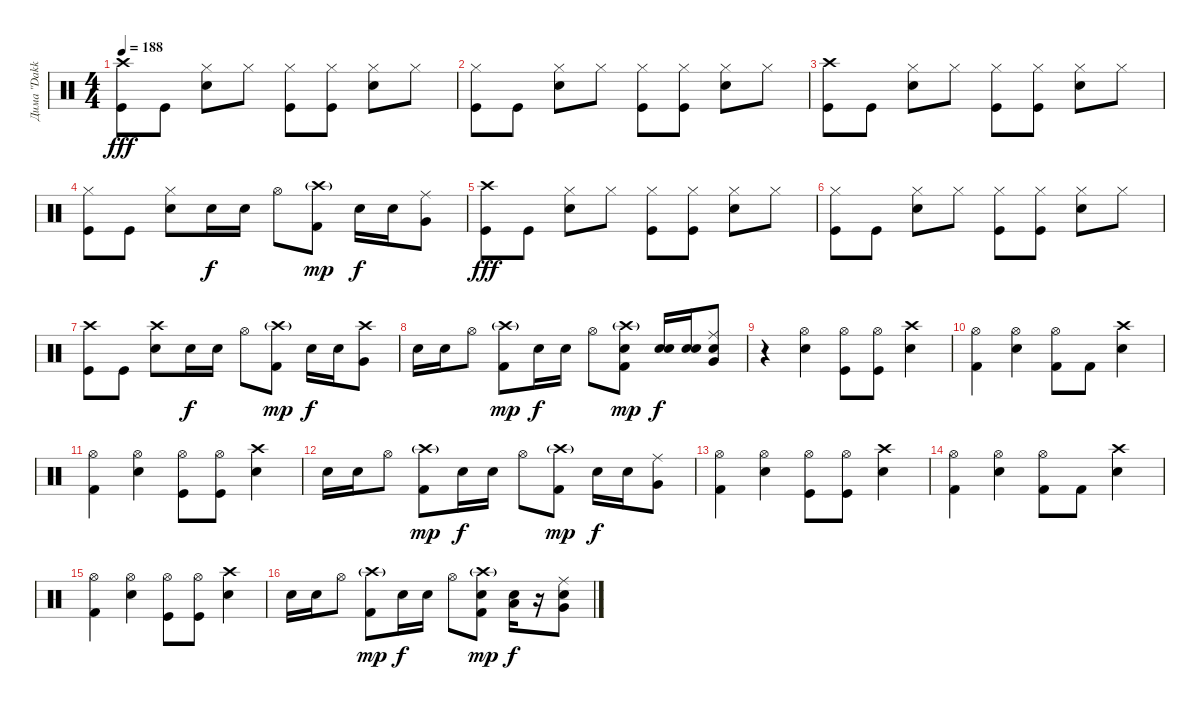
\track ("Дима \"Dakkar\" Кеменов" "Дима \"Dakk") {instrument percussion}
\staff
\articulation defaults
\ts (4 4)
\tempo 188
\clef neutral
\ks c
("Crash high (hit)" "Kick (hit)").8{dy fff} "Kick (hit)".8 ("Hi-Hat (closed)" "Snare (hit) 2").8 "Hi-Hat (closed)".8 ("Hi-Hat (closed)" "Kick (hit)").8 ("Hi-Hat (closed)" "Kick (hit)").8 ("Hi-Hat (closed)" "Snare (hit) 2").8 "Hi-Hat (closed)".8 |
("Hi-Hat (closed)" "Kick (hit)").8 "Kick (hit)".8 ("Hi-Hat (closed)" "Snare (hit) 2").8 "Hi-Hat (closed)".8 ("Hi-Hat (closed)" "Kick (hit)").8 ("Hi-Hat (closed)" "Kick (hit)").8 ("Hi-Hat (closed)" "Snare (hit) 2").8 "Hi-Hat (closed)".8 |
("Crash high (hit)" "Kick (hit)").8 "Kick (hit)".8 ("Hi-Hat (closed)" "Snare (hit) 2").8 "Hi-Hat (closed)".8 ("Hi-Hat (closed)" "Kick (hit)").8 ("Hi-Hat (closed)" "Kick (hit)").8 ("Hi-Hat (closed)" "Snare (hit) 2").8 "Hi-Hat (closed)".8 |
("Hi-Hat (closed)" "Kick (hit)").8 "Kick (hit)".8 ("Hi-Hat (closed)" "Snare (hit) 2").8 "Electric Snare (hit)".16{dy f} "Electric Snare (hit)".16 "Hi-Hat (open)".8 ("Crash high (hit)"{g} "Kick (hit) 2").8{dy mp} "Electric Snare (hit)".16{dy f} "Electric Snare (hit)".16 ("Ride (middle)" "Very Low Tom (hit)").8 |
("Crash high (hit)" "Kick (hit)").8{dy fff} "Kick (hit)".8 ("Hi-Hat (closed)" "Snare (hit) 2").8 "Hi-Hat (closed)".8 ("Hi-Hat (closed)" "Kick (hit)").8 ("Hi-Hat (closed)" "Kick (hit)").8 ("Hi-Hat (closed)" "Snare (hit) 2").8 "Hi-Hat (closed)".8 |
("Hi-Hat (closed)" "Kick (hit)").8 "Kick (hit)".8 ("Hi-Hat (closed)" "Snare (hit) 2").8 "Hi-Hat (closed)".8 ("Hi-Hat (closed)" "Kick (hit)").8 ("Hi-Hat (closed)" "Kick (hit)").8 ("Hi-Hat (closed)" "Snare (hit) 2").8 "Hi-Hat (closed)".8 |
("Crash high (hit)" "Kick (hit)").8 "Kick (hit)".8 ("Crash high (hit)" "Snare (hit) 2").8 "Electric Snare (hit)".16{dy f} "Electric Snare (hit)".16 "Hi-Hat (open)".8 ("Crash high (hit)"{g} "Kick (hit) 2").8{dy mp} "Electric Snare (hit)".16{dy f} "Electric Snare (hit)".16 ("Crash high (hit)" "Very Low Tom (hit)").8 |
"Electric Snare (hit)".16 "Electric Snare (hit)".16 "Hi-Hat (open)".8 ("Crash high (hit)"{g} "Kick (hit) 2").8{dy mp} "Electric Snare (hit)".16{dy f} "Electric Snare (hit)".16 "Hi-Hat (open)".8 ("Electric Snare (hit)" "Crash high (hit)"{g} "Kick (hit) 2").8{dy mp} ("Electric Snare (hit)" "Electric Snare (hit)").16{dy f} ("Electric Snare (hit)" "Electric Snare (hit)").16 ("Electric Snare (hit)" "Ride (middle)" "Very Low Tom (hit)").8 |
r.4 ("Hi-Hat (open)" "Electric Snare (hit)").4 ("Hi-Hat (open)" "Kick (hit)").8 ("Hi-Hat (open)" "Kick (hit)").8 ("Crash high (hit)" "Electric Snare (hit)").4 |
("Hi-Hat (open)" "Kick (hit) 2").4 ("Hi-Hat (open)" "Electric Snare (hit)").4 ("Hi-Hat (open)" "Kick (hit) 2").8 "Kick (hit) 2".8 ("Crash high (hit)" "Electric Snare (hit)").4 |
("Hi-Hat (open)" "Kick (hit) 2").4 ("Hi-Hat (open)" "Electric Snare (hit)").4 ("Hi-Hat (open)" "Kick (hit)").8 ("Hi-Hat (open)" "Kick (hit)").8 ("Crash high (hit)" "Electric Snare (hit)").4 |
"Electric Snare (hit)".16 "Electric Snare (hit)".16 "Hi-Hat (open)".8 ("Crash high (hit)"{g} "Kick (hit) 2").8{dy mp} "Electric Snare (hit)".16{dy f} "Electric Snare (hit)".16 "Hi-Hat (open)".8 ("Crash high (hit)"{g} "Kick (hit) 2").8{dy mp} "Electric Snare (hit)".16{dy f} "Electric Snare (hit)".16 ("Ride (middle)" "Very Low Tom (hit)").8 |
("Hi-Hat (open)" "Kick (hit) 2").4 ("Hi-Hat (open)" "Electric Snare (hit)").4 ("Hi-Hat (open)" "Kick (hit)").8 ("Hi-Hat (open)" "Kick (hit)").8 ("Crash high (hit)" "Electric Snare (hit)").4 |
("Hi-Hat (open)" "Kick (hit) 2").4 ("Hi-Hat (open)" "Electric Snare (hit)").4 ("Hi-Hat (open)" "Kick (hit) 2").8 "Kick (hit) 2".8 ("Crash high (hit)" "Electric Snare (hit)").4 |
("Hi-Hat (open)" "Kick (hit) 2").4 ("Hi-Hat (open)" "Electric Snare (hit)").4 ("Hi-Hat (open)" "Kick (hit)").8 ("Hi-Hat (open)" "Kick (hit)").8 ("Crash high (hit)" "Electric Snare (hit)").4 |
"Electric Snare (hit)".16 "Electric Snare (hit)".16 "Hi-Hat (open)".8 ("Crash high (hit)"{g} "Kick (hit) 2").8{dy mp} "Electric Snare (hit)".16{dy f} "Electric Snare (hit)".16 "Hi-Hat (open)".8 ("Electric Snare (hit)" "Crash high (hit)"{g} "Kick (hit) 2").8{dy mp} ("Low Floor Tom (hit)" "Hand Clap (hit)").16{dy f} r.16 ("Ride (middle)" "Hand Clap (hit)" "Very Low Tom (hit)").8
